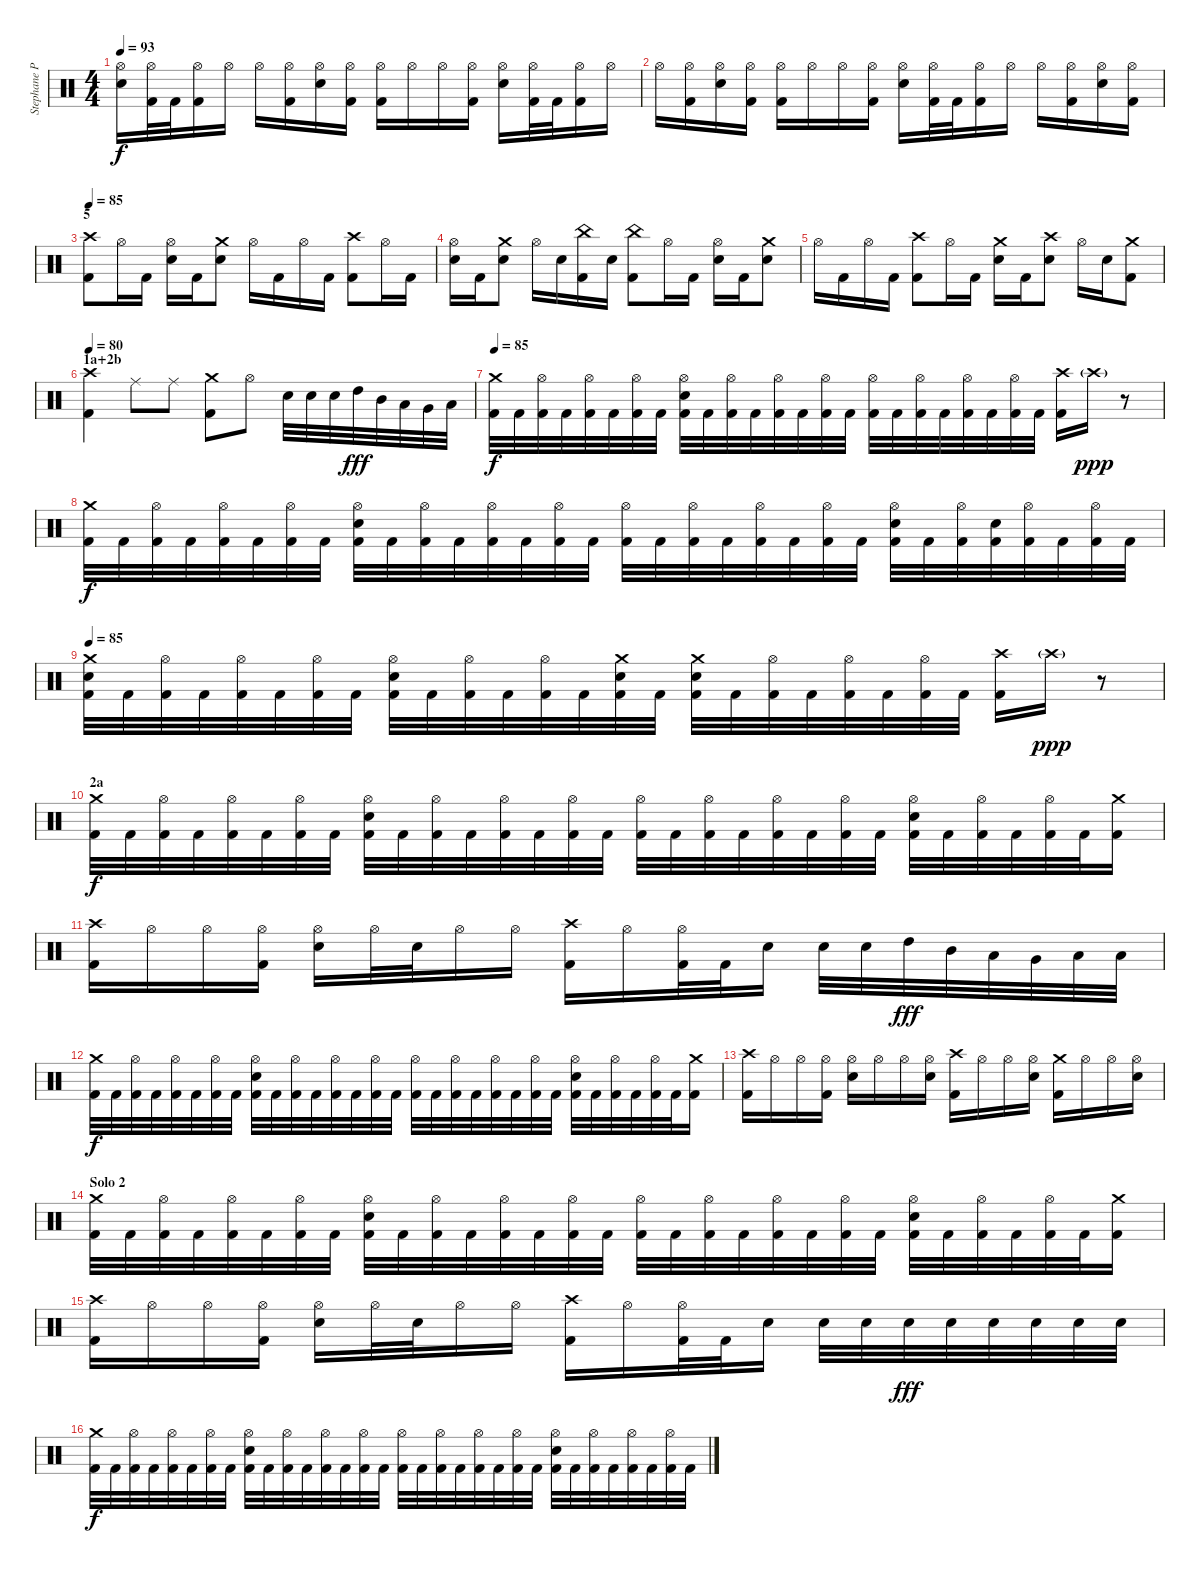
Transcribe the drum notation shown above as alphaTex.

\track ("Stephane Provencher " "Stephane P") {instrument percussion}
\staff {score}
\articulation defaults
\ts (4 4)
\tempo 93
\clef neutral
\ks c
("Hi-Hat (open)" "Electric Snare (hit)").16{dy f} ("Hi-Hat (open)" "Kick (hit) 2").32 "Kick (hit) 2".32 ("Hi-Hat (open)" "Kick (hit) 2").16 "Hi-Hat (open)".16 "Hi-Hat (open)".16 ("Hi-Hat (open)" "Kick (hit) 2").16 ("Hi-Hat (open)" "Electric Snare (hit)").16 ("Hi-Hat (open)" "Kick (hit) 2").16 ("Hi-Hat (open)" "Kick (hit) 2").16 "Hi-Hat (open)".16 "Hi-Hat (open)".16 ("Hi-Hat (open)" "Kick (hit) 2").16 ("Hi-Hat (open)" "Electric Snare (hit)").16 ("Hi-Hat (open)" "Kick (hit) 2").32 "Kick (hit) 2".32 ("Hi-Hat (open)" "Kick (hit) 2").16 "Hi-Hat (open)".16 |
"Hi-Hat (open)".16 ("Hi-Hat (open)" "Kick (hit) 2").16 ("Hi-Hat (open)" "Electric Snare (hit)").16 ("Hi-Hat (open)" "Kick (hit) 2").16 ("Hi-Hat (open)" "Kick (hit) 2").16 "Hi-Hat (open)".16 "Hi-Hat (open)".16 ("Hi-Hat (open)" "Kick (hit) 2").16 ("Hi-Hat (open)" "Electric Snare (hit)").16 ("Hi-Hat (open)" "Kick (hit) 2").32 "Kick (hit) 2".32 ("Hi-Hat (open)" "Kick (hit) 2").16 "Hi-Hat (open)".16 "Hi-Hat (open)".16 ("Hi-Hat (open)" "Kick (hit) 2").16 ("Hi-Hat (open)" "Electric Snare (hit)").16 ("Hi-Hat (open)" "Kick (hit) 2").16 |
\section ("" "5")
\tempo 85
("Crash high (hit)" "Kick (hit) 2").8 "Hi-Hat (open)".16 "Kick (hit) 2".16 ("Hi-Hat (open)" "Electric Snare (hit)").16 "Kick (hit) 2".16 ("Crash medium (hit)" "Electric Snare (hit)").8 "Hi-Hat (open)".16 "Kick (hit) 2".16 "Hi-Hat (open)".16 "Kick (hit) 2".16 ("Crash high (hit)" "Kick (hit) 2").8 "Hi-Hat (open)".16 "Kick (hit) 2".16 |
("Hi-Hat (open)" "Electric Snare (hit)").16 "Kick (hit) 2".16 ("Crash medium (hit)" "Electric Snare (hit)").8 "Hi-Hat (open)".16 "Electric Snare (hit)".16 ("China (hit)" "Kick (hit) 2").16 "Electric Snare (hit)".16 ("China (hit)" "Kick (hit) 2").8 "Hi-Hat (open)".16 "Kick (hit) 2".16 ("Hi-Hat (open)" "Electric Snare (hit)").16 "Kick (hit) 2".16 ("Crash medium (hit)" "Electric Snare (hit)").8 |
"Hi-Hat (open)".16 "Kick (hit) 2".16 "Hi-Hat (open)".16 "Kick (hit) 2".16 ("Crash high (hit)" "Kick (hit) 2").8 "Hi-Hat (open)".16 "Kick (hit) 2".16 ("Crash medium (hit)" "Electric Snare (hit)").16 "Kick (hit) 2".16 ("Crash high (hit)" "Electric Snare (hit)").8 "Hi-Hat (open)".16 "Electric Snare (hit)".16 ("Crash medium (hit)" "Kick (hit) 2").8 |
\section ("" "1a+2b")
\tempo 80
("Crash high (hit)" "Kick (hit) 2").4 "Ride (middle)".8 "Ride (middle)".8 ("Crash medium (hit)" "Kick (hit) 2").8 "Hi-Hat (open)".8 "Electric Snare (hit)".32 "Electric Snare (hit)".32 "Electric Snare (hit)".32 "High Tom (hit)".32{dy fff} "Mid Tom (hit)".32 "Low Tom (hit)".32 "Very Low Tom (hit)".32 "Low Floor Tom (hit)".32 |
\tempo 85
("Crash medium (hit)" "Kick (hit) 2").32{dy f} "Kick (hit) 2".32 ("Hi-Hat (open)" "Kick (hit) 2").32 "Kick (hit) 2".32 ("Hi-Hat (open)" "Kick (hit) 2").32 "Kick (hit) 2".32 ("Hi-Hat (open)" "Kick (hit) 2").32 "Kick (hit) 2".32 ("Hi-Hat (open)" "Electric Snare (hit)" "Kick (hit) 2").32 "Kick (hit) 2".32 ("Hi-Hat (open)" "Kick (hit) 2").32 "Kick (hit) 2".32 ("Hi-Hat (open)" "Kick (hit) 2").32 "Kick (hit) 2".32 ("Hi-Hat (open)" "Kick (hit) 2").32 "Kick (hit) 2".32 ("Hi-Hat (open)" "Kick (hit) 2").32 "Kick (hit) 2".32 ("Hi-Hat (open)" "Kick (hit) 2").32 "Kick (hit) 2".32 ("Hi-Hat (open)" "Kick (hit) 2").32 "Kick (hit) 2".32 ("Hi-Hat (open)" "Kick (hit) 2").32 "Kick (hit) 2".32 ("Crash high (hit)" "Kick (hit) 2").16 "Crash high (hit)"{g}.16{dy ppp} r.8{volume 0} |
("Crash medium (hit)" "Kick (hit) 2").32{dy f volume 14} "Kick (hit) 2".32 ("Hi-Hat (open)" "Kick (hit) 2").32 "Kick (hit) 2".32 ("Hi-Hat (open)" "Kick (hit) 2").32 "Kick (hit) 2".32 ("Hi-Hat (open)" "Kick (hit) 2").32 "Kick (hit) 2".32 ("Hi-Hat (open)" "Electric Snare (hit)" "Kick (hit) 2").32 "Kick (hit) 2".32 ("Hi-Hat (open)" "Kick (hit) 2").32 "Kick (hit) 2".32 ("Hi-Hat (open)" "Kick (hit) 2").32 "Kick (hit) 2".32 ("Hi-Hat (open)" "Kick (hit) 2").32 "Kick (hit) 2".32 ("Hi-Hat (open)" "Kick (hit) 2").32 "Kick (hit) 2".32 ("Hi-Hat (open)" "Kick (hit) 2").32 "Kick (hit) 2".32 ("Hi-Hat (open)" "Kick (hit) 2").32 "Kick (hit) 2".32 ("Hi-Hat (open)" "Kick (hit) 2").32 "Kick (hit) 2".32 ("Hi-Hat (open)" "Electric Snare (hit)" "Kick (hit) 2").32 "Kick (hit) 2".32 ("Hi-Hat (open)" "Kick (hit) 2").32 ("Electric Snare (hit)" "Kick (hit) 2").32 ("Hi-Hat (open)" "Kick (hit) 2").32 "Kick (hit) 2".32 ("Hi-Hat (open)" "Kick (hit) 2").32 "Kick (hit) 2".32 |
\tempo 85
("Crash medium (hit)" "Electric Snare (hit)" "Kick (hit) 2").32 "Kick (hit) 2".32 ("Hi-Hat (open)" "Kick (hit) 2").32 "Kick (hit) 2".32 ("Hi-Hat (open)" "Kick (hit) 2").32 "Kick (hit) 2".32 ("Hi-Hat (open)" "Kick (hit) 2").32 "Kick (hit) 2".32 ("Hi-Hat (open)" "Electric Snare (hit)" "Kick (hit) 2").32 "Kick (hit) 2".32 ("Hi-Hat (open)" "Kick (hit) 2").32 "Kick (hit) 2".32 ("Hi-Hat (open)" "Kick (hit) 2").32 "Kick (hit) 2".32 ("Crash medium (hit)" "Electric Snare (hit)" "Kick (hit) 2").32 "Kick (hit) 2".32 ("Crash medium (hit)" "Electric Snare (hit)" "Kick (hit) 2").32 "Kick (hit) 2".32 ("Hi-Hat (open)" "Kick (hit) 2").32 "Kick (hit) 2".32 ("Hi-Hat (open)" "Kick (hit) 2").32 "Kick (hit) 2".32 ("Hi-Hat (open)" "Kick (hit) 2").32 "Kick (hit) 2".32 ("Crash high (hit)" "Kick (hit) 2").16 "Crash high (hit)"{g}.16{dy ppp} r.8{volume 0} |
\section ("" "2a")
("Crash medium (hit)" "Kick (hit) 2").32{dy f volume 14} "Kick (hit) 2".32 ("Hi-Hat (open)" "Kick (hit) 2").32 "Kick (hit) 2".32 ("Hi-Hat (open)" "Kick (hit) 2").32 "Kick (hit) 2".32 ("Hi-Hat (open)" "Kick (hit) 2").32 "Kick (hit) 2".32 ("Hi-Hat (open)" "Electric Snare (hit)" "Kick (hit) 2").32 "Kick (hit) 2".32 ("Hi-Hat (open)" "Kick (hit) 2").32 "Kick (hit) 2".32 ("Hi-Hat (open)" "Kick (hit) 2").32 "Kick (hit) 2".32 ("Hi-Hat (open)" "Kick (hit) 2").32 "Kick (hit) 2".32 ("Hi-Hat (open)" "Kick (hit) 2").32 "Kick (hit) 2".32 ("Hi-Hat (open)" "Kick (hit) 2").32 "Kick (hit) 2".32 ("Hi-Hat (open)" "Kick (hit) 2").32 "Kick (hit) 2".32 ("Hi-Hat (open)" "Kick (hit) 2").32 "Kick (hit) 2".32 ("Hi-Hat (open)" "Electric Snare (hit)" "Kick (hit) 2").32 "Kick (hit) 2".32 ("Hi-Hat (open)" "Kick (hit) 2").32 "Kick (hit) 2".32 ("Hi-Hat (open)" "Kick (hit) 2").32 "Kick (hit) 2".32 ("Crash medium (hit)" "Kick (hit) 2").16 |
("Crash high (hit)" "Kick (hit) 2").16 "Hi-Hat (open)".16 "Hi-Hat (open)".16 ("Hi-Hat (open)" "Kick (hit) 2").16 ("Hi-Hat (open)" "Electric Snare (hit)").16 "Hi-Hat (open)".32 "Electric Snare (hit)".32 "Hi-Hat (open)".16 "Hi-Hat (open)".16 ("Crash high (hit)" "Kick (hit) 2").16 "Hi-Hat (open)".16 ("Hi-Hat (open)" "Kick (hit) 2").32 "Kick (hit) 2".32 "Electric Snare (hit)".16 "Electric Snare (hit)".32 "Electric Snare (hit)".32 "High Tom (hit)".32{dy fff} "Mid Tom (hit)".32 "Low Tom (hit)".32 "Very Low Tom (hit)".32 "Low Floor Tom (hit)".32 "Low Floor Tom (hit)".32 |
("Crash medium (hit)" "Kick (hit) 2").32{dy f} "Kick (hit) 2".32 ("Hi-Hat (open)" "Kick (hit) 2").32 "Kick (hit) 2".32 ("Hi-Hat (open)" "Kick (hit) 2").32 "Kick (hit) 2".32 ("Hi-Hat (open)" "Kick (hit) 2").32 "Kick (hit) 2".32 ("Hi-Hat (open)" "Electric Snare (hit)" "Kick (hit) 2").32 "Kick (hit) 2".32 ("Hi-Hat (open)" "Kick (hit) 2").32 "Kick (hit) 2".32 ("Hi-Hat (open)" "Kick (hit) 2").32 "Kick (hit) 2".32 ("Hi-Hat (open)" "Kick (hit) 2").32 "Kick (hit) 2".32 ("Hi-Hat (open)" "Kick (hit) 2").32 "Kick (hit) 2".32 ("Hi-Hat (open)" "Kick (hit) 2").32 "Kick (hit) 2".32 ("Hi-Hat (open)" "Kick (hit) 2").32 "Kick (hit) 2".32 ("Hi-Hat (open)" "Kick (hit) 2").32 "Kick (hit) 2".32 ("Hi-Hat (open)" "Electric Snare (hit)" "Kick (hit) 2").32 "Kick (hit) 2".32 ("Hi-Hat (open)" "Kick (hit) 2").32 "Kick (hit) 2".32 ("Hi-Hat (open)" "Kick (hit) 2").32 "Kick (hit) 2".32 ("Crash medium (hit)" "Kick (hit) 2").16 |
("Crash high (hit)" "Kick (hit) 2").16 "Hi-Hat (open)".16 "Hi-Hat (open)".16 ("Hi-Hat (open)" "Kick (hit) 2").16 ("Hi-Hat (open)" "Electric Snare (hit)").16 "Hi-Hat (open)".16 "Hi-Hat (open)".16 ("Hi-Hat (open)" "Electric Snare (hit)").16 ("Crash high (hit)" "Kick (hit) 2").16 "Hi-Hat (open)".16 "Hi-Hat (open)".16 ("Hi-Hat (open)" "Electric Snare (hit)").16 ("Crash medium (hit)" "Kick (hit) 2").16 "Hi-Hat (open)".16 "Hi-Hat (open)".16 ("Hi-Hat (open)" "Electric Snare (hit)").16 |
\section ("" "Solo 2")
("Crash medium (hit)" "Kick (hit) 2").32 "Kick (hit) 2".32 ("Hi-Hat (open)" "Kick (hit) 2").32 "Kick (hit) 2".32 ("Hi-Hat (open)" "Kick (hit) 2").32 "Kick (hit) 2".32 ("Hi-Hat (open)" "Kick (hit) 2").32 "Kick (hit) 2".32 ("Hi-Hat (open)" "Electric Snare (hit)" "Kick (hit) 2").32 "Kick (hit) 2".32 ("Hi-Hat (open)" "Kick (hit) 2").32 "Kick (hit) 2".32 ("Hi-Hat (open)" "Kick (hit) 2").32 "Kick (hit) 2".32 ("Hi-Hat (open)" "Kick (hit) 2").32 "Kick (hit) 2".32 ("Hi-Hat (open)" "Kick (hit) 2").32 "Kick (hit) 2".32 ("Hi-Hat (open)" "Kick (hit) 2").32 "Kick (hit) 2".32 ("Hi-Hat (open)" "Kick (hit) 2").32 "Kick (hit) 2".32 ("Hi-Hat (open)" "Kick (hit) 2").32 "Kick (hit) 2".32 ("Hi-Hat (open)" "Electric Snare (hit)" "Kick (hit) 2").32 "Kick (hit) 2".32 ("Hi-Hat (open)" "Kick (hit) 2").32 "Kick (hit) 2".32 ("Hi-Hat (open)" "Kick (hit) 2").32 "Kick (hit) 2".32 ("Crash medium (hit)" "Kick (hit) 2").16 |
("Crash high (hit)" "Kick (hit) 2").16 "Hi-Hat (open)".16 "Hi-Hat (open)".16 ("Hi-Hat (open)" "Kick (hit) 2").16 ("Hi-Hat (open)" "Electric Snare (hit)").16 "Hi-Hat (open)".32 "Electric Snare (hit)".32 "Hi-Hat (open)".16 "Hi-Hat (open)".16 ("Crash high (hit)" "Kick (hit) 2").16 "Hi-Hat (open)".16 ("Hi-Hat (open)" "Kick (hit) 2").32 "Kick (hit) 2".32 "Electric Snare (hit)".16 "Electric Snare (hit)".32 "Electric Snare (hit)".32 "Electric Snare (hit)".32{dy fff} "Electric Snare (hit)".32 "Electric Snare (hit)".32 "Electric Snare (hit)".32 "Electric Snare (hit)".32 "Electric Snare (hit)".32 |
("Crash medium (hit)" "Kick (hit) 2").32{dy f} "Kick (hit) 2".32 ("Hi-Hat (open)" "Kick (hit) 2").32 "Kick (hit) 2".32 ("Hi-Hat (open)" "Kick (hit) 2").32 "Kick (hit) 2".32 ("Hi-Hat (open)" "Kick (hit) 2").32 "Kick (hit) 2".32 ("Hi-Hat (open)" "Electric Snare (hit)" "Kick (hit) 2").32 "Kick (hit) 2".32 ("Hi-Hat (open)" "Kick (hit) 2").32 "Kick (hit) 2".32 ("Hi-Hat (open)" "Kick (hit) 2").32 "Kick (hit) 2".32 ("Hi-Hat (open)" "Kick (hit) 2").32 "Kick (hit) 2".32 ("Hi-Hat (open)" "Kick (hit) 2").32 "Kick (hit) 2".32 ("Hi-Hat (open)" "Kick (hit) 2").32 "Kick (hit) 2".32 ("Hi-Hat (open)" "Kick (hit) 2").32 "Kick (hit) 2".32 ("Hi-Hat (open)" "Kick (hit) 2").32 "Kick (hit) 2".32 ("Hi-Hat (open)" "Electric Snare (hit)" "Kick (hit) 2").32 "Kick (hit) 2".32 ("Hi-Hat (open)" "Kick (hit) 2").32 "Kick (hit) 2".32 ("Hi-Hat (open)" "Kick (hit) 2").32 "Kick (hit) 2".32 ("Hi-Hat (open)" "Kick (hit) 2").32 "Kick (hit) 2".32
